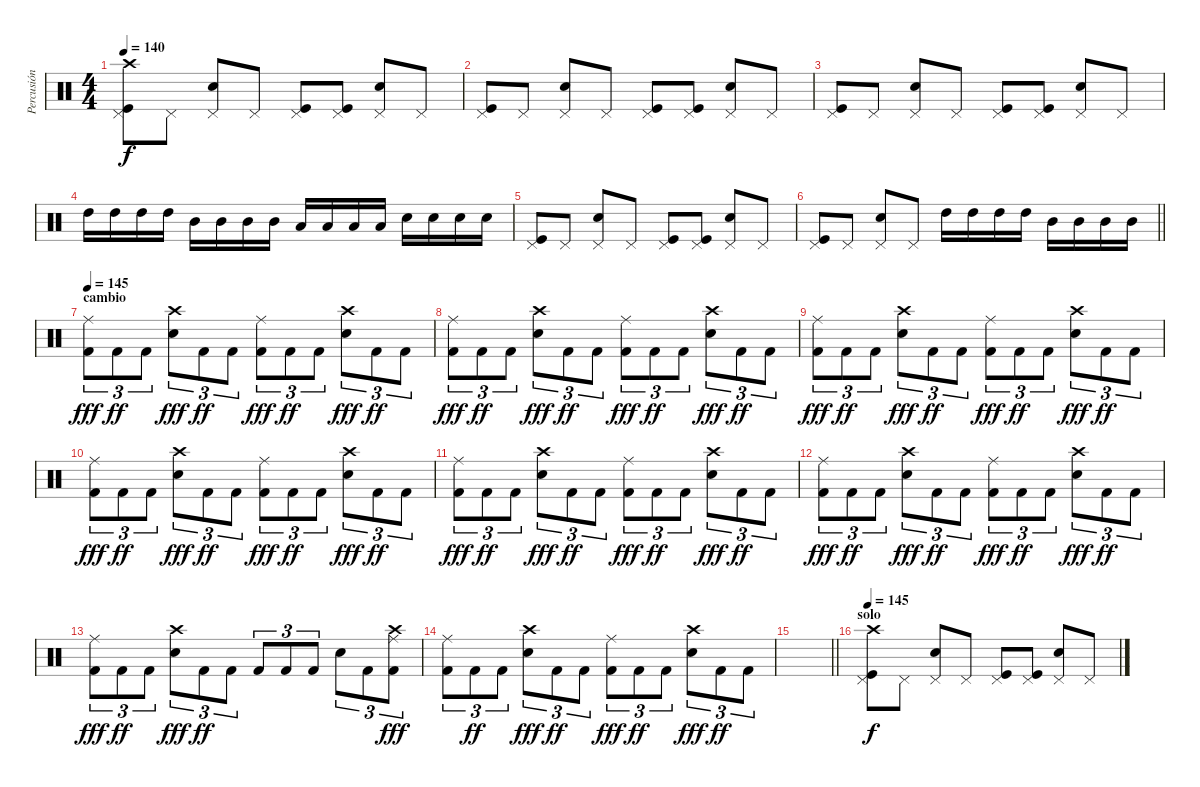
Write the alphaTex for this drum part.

\track ("Percusión" "Percusión") {instrument percussion}
\staff {score}
\articulation defaults
\ts (4 4)
\tempo 140
\clef neutral
\ks c
("Crash high (hit)" "Kick (hit)" "Pedal Hi-Hat (hit)").8{dy f} "Pedal Hi-Hat (hit)".8 ("Snare (hit) 2" "Pedal Hi-Hat (hit)").8 "Pedal Hi-Hat (hit)".8 ("Kick (hit)" "Pedal Hi-Hat (hit)").8 ("Kick (hit)" "Pedal Hi-Hat (hit)").8 ("Snare (hit) 2" "Pedal Hi-Hat (hit)").8 "Pedal Hi-Hat (hit)".8 |
("Kick (hit)" "Pedal Hi-Hat (hit)").8 "Pedal Hi-Hat (hit)".8 ("Snare (hit) 2" "Pedal Hi-Hat (hit)").8 "Pedal Hi-Hat (hit)".8 ("Kick (hit)" "Pedal Hi-Hat (hit)").8 ("Kick (hit)" "Pedal Hi-Hat (hit)").8 ("Snare (hit) 2" "Pedal Hi-Hat (hit)").8 "Pedal Hi-Hat (hit)".8 |
("Kick (hit)" "Pedal Hi-Hat (hit)").8 "Pedal Hi-Hat (hit)".8 ("Snare (hit) 2" "Pedal Hi-Hat (hit)").8 "Pedal Hi-Hat (hit)".8 ("Kick (hit)" "Pedal Hi-Hat (hit)").8 ("Kick (hit)" "Pedal Hi-Hat (hit)").8 ("Snare (hit) 2" "Pedal Hi-Hat (hit)").8 "Pedal Hi-Hat (hit)".8 |
"High Tom (hit)".16 "High Tom (hit)".16 "High Tom (hit)".16 "High Tom (hit)".16 "Mid Tom (hit)".16 "Mid Tom (hit)".16 "Mid Tom (hit)".16 "Mid Tom (hit)".16 "Low Tom (hit)".16 "Low Tom (hit)".16 "Low Tom (hit)".16 "Low Tom (hit)".16 "Snare (hit) 2".16 "Snare (hit) 2".16 "Snare (hit) 2".16 "Snare (hit) 2".16 |
("Kick (hit)" "Pedal Hi-Hat (hit)").8 "Pedal Hi-Hat (hit)".8 ("Snare (hit) 2" "Pedal Hi-Hat (hit)").8 "Pedal Hi-Hat (hit)".8 ("Kick (hit)" "Pedal Hi-Hat (hit)").8 ("Kick (hit)" "Pedal Hi-Hat (hit)").8 ("Snare (hit) 2" "Pedal Hi-Hat (hit)").8 "Pedal Hi-Hat (hit)".8 |
\barLineRight lightlight
("Kick (hit)" "Pedal Hi-Hat (hit)").8 "Pedal Hi-Hat (hit)".8 ("Snare (hit) 2" "Pedal Hi-Hat (hit)").8 "Pedal Hi-Hat (hit)".8 "High Tom (hit)".16 "High Tom (hit)".16 "High Tom (hit)".16 "High Tom (hit)".16 "Mid Tom (hit)".16 "Mid Tom (hit)".16 "Mid Tom (hit)".16 "Mid Tom (hit)".16 |
\section ("" "cambio")
\tempo 145
("Kick (hit) 2" "Ride (middle)").8{tu (3 2) dy fff} "Kick (hit) 2".8{tu (3 2) dy ff} "Kick (hit) 2".8{tu (3 2)} ("Electric Snare (hit)" "Crash high (hit)").8{tu (3 2) dy fff} "Kick (hit) 2".8{tu (3 2) dy ff} "Kick (hit) 2".8{tu (3 2)} ("Kick (hit) 2" "Ride (middle)").8{tu (3 2) dy fff} "Kick (hit) 2".8{tu (3 2) dy ff} "Kick (hit) 2".8{tu (3 2)} ("Electric Snare (hit)" "Crash high (hit)").8{tu (3 2) dy fff} "Kick (hit) 2".8{tu (3 2) dy ff} "Kick (hit) 2".8{tu (3 2)} |
("Kick (hit) 2" "Ride (middle)").8{tu (3 2) dy fff} "Kick (hit) 2".8{tu (3 2) dy ff} "Kick (hit) 2".8{tu (3 2)} ("Electric Snare (hit)" "Crash high (hit)").8{tu (3 2) dy fff} "Kick (hit) 2".8{tu (3 2) dy ff} "Kick (hit) 2".8{tu (3 2)} ("Kick (hit) 2" "Ride (middle)").8{tu (3 2) dy fff} "Kick (hit) 2".8{tu (3 2) dy ff} "Kick (hit) 2".8{tu (3 2)} ("Electric Snare (hit)" "Crash high (hit)").8{tu (3 2) dy fff} "Kick (hit) 2".8{tu (3 2) dy ff} "Kick (hit) 2".8{tu (3 2)} |
("Kick (hit) 2" "Ride (middle)").8{tu (3 2) dy fff} "Kick (hit) 2".8{tu (3 2) dy ff} "Kick (hit) 2".8{tu (3 2)} ("Electric Snare (hit)" "Crash high (hit)").8{tu (3 2) dy fff} "Kick (hit) 2".8{tu (3 2) dy ff} "Kick (hit) 2".8{tu (3 2)} ("Kick (hit) 2" "Ride (middle)").8{tu (3 2) dy fff} "Kick (hit) 2".8{tu (3 2) dy ff} "Kick (hit) 2".8{tu (3 2)} ("Electric Snare (hit)" "Crash high (hit)").8{tu (3 2) dy fff} "Kick (hit) 2".8{tu (3 2) dy ff} "Kick (hit) 2".8{tu (3 2)} |
("Kick (hit) 2" "Ride (middle)").8{tu (3 2) dy fff} "Kick (hit) 2".8{tu (3 2) dy ff} "Kick (hit) 2".8{tu (3 2)} ("Electric Snare (hit)" "Crash high (hit)").8{tu (3 2) dy fff} "Kick (hit) 2".8{tu (3 2) dy ff} "Kick (hit) 2".8{tu (3 2)} ("Kick (hit) 2" "Ride (middle)").8{tu (3 2) dy fff} "Kick (hit) 2".8{tu (3 2) dy ff} "Kick (hit) 2".8{tu (3 2)} ("Electric Snare (hit)" "Crash high (hit)").8{tu (3 2) dy fff} "Kick (hit) 2".8{tu (3 2) dy ff} "Kick (hit) 2".8{tu (3 2)} |
("Kick (hit) 2" "Ride (middle)").8{tu (3 2) dy fff} "Kick (hit) 2".8{tu (3 2) dy ff} "Kick (hit) 2".8{tu (3 2)} ("Electric Snare (hit)" "Crash high (hit)").8{tu (3 2) dy fff} "Kick (hit) 2".8{tu (3 2) dy ff} "Kick (hit) 2".8{tu (3 2)} ("Kick (hit) 2" "Ride (middle)").8{tu (3 2) dy fff} "Kick (hit) 2".8{tu (3 2) dy ff} "Kick (hit) 2".8{tu (3 2)} ("Electric Snare (hit)" "Crash high (hit)").8{tu (3 2) dy fff} "Kick (hit) 2".8{tu (3 2) dy ff} "Kick (hit) 2".8{tu (3 2)} |
("Kick (hit) 2" "Ride (middle)").8{tu (3 2) dy fff} "Kick (hit) 2".8{tu (3 2) dy ff} "Kick (hit) 2".8{tu (3 2)} ("Electric Snare (hit)" "Crash high (hit)").8{tu (3 2) dy fff} "Kick (hit) 2".8{tu (3 2) dy ff} "Kick (hit) 2".8{tu (3 2)} ("Kick (hit) 2" "Ride (middle)").8{tu (3 2) dy fff} "Kick (hit) 2".8{tu (3 2) dy ff} "Kick (hit) 2".8{tu (3 2)} ("Electric Snare (hit)" "Crash high (hit)").8{tu (3 2) dy fff} "Kick (hit) 2".8{tu (3 2) dy ff} "Kick (hit) 2".8{tu (3 2)} |
("Kick (hit) 2" "Ride (middle)").8{tu (3 2) dy fff} "Kick (hit) 2".8{tu (3 2) dy ff} "Kick (hit) 2".8{tu (3 2)} ("Electric Snare (hit)" "Crash high (hit)").8{tu (3 2) dy fff} "Kick (hit) 2".8{tu (3 2) dy ff} "Kick (hit) 2".8{tu (3 2)} "Kick (hit) 2".8{tu (3 2)} "Kick (hit) 2".8{tu (3 2)} "Kick (hit) 2".8{tu (3 2)} "Electric Snare (hit)".8{tu (3 2)} "Kick (hit) 2".8{tu (3 2)} ("Kick (hit) 2" "Ride (middle)" "Crash high (hit)").8{tu (3 2) dy fff} |
("Kick (hit) 2" "Ride (middle)").8{tu (3 2)} "Kick (hit) 2".8{tu (3 2) dy ff} "Kick (hit) 2".8{tu (3 2)} ("Electric Snare (hit)" "Crash high (hit)").8{tu (3 2) dy fff} "Kick (hit) 2".8{tu (3 2) dy ff} "Kick (hit) 2".8{tu (3 2)} ("Kick (hit) 2" "Ride (middle)").8{tu (3 2) dy fff} "Kick (hit) 2".8{tu (3 2) dy ff} "Kick (hit) 2".8{tu (3 2)} ("Electric Snare (hit)" "Crash high (hit)").8{tu (3 2) dy fff} "Kick (hit) 2".8{tu (3 2) dy ff} "Kick (hit) 2".8{tu (3 2)} |
\barLineRight lightlight
|
\section ("" "solo")
\tempo 145
("Crash high (hit)" "Kick (hit)" "Pedal Hi-Hat (hit)").8{dy f} "Pedal Hi-Hat (hit)".8 ("Snare (hit) 2" "Pedal Hi-Hat (hit)").8 "Pedal Hi-Hat (hit)".8 ("Kick (hit)" "Pedal Hi-Hat (hit)").8 ("Kick (hit)" "Pedal Hi-Hat (hit)").8 ("Snare (hit) 2" "Pedal Hi-Hat (hit)").8 "Pedal Hi-Hat (hit)".8
